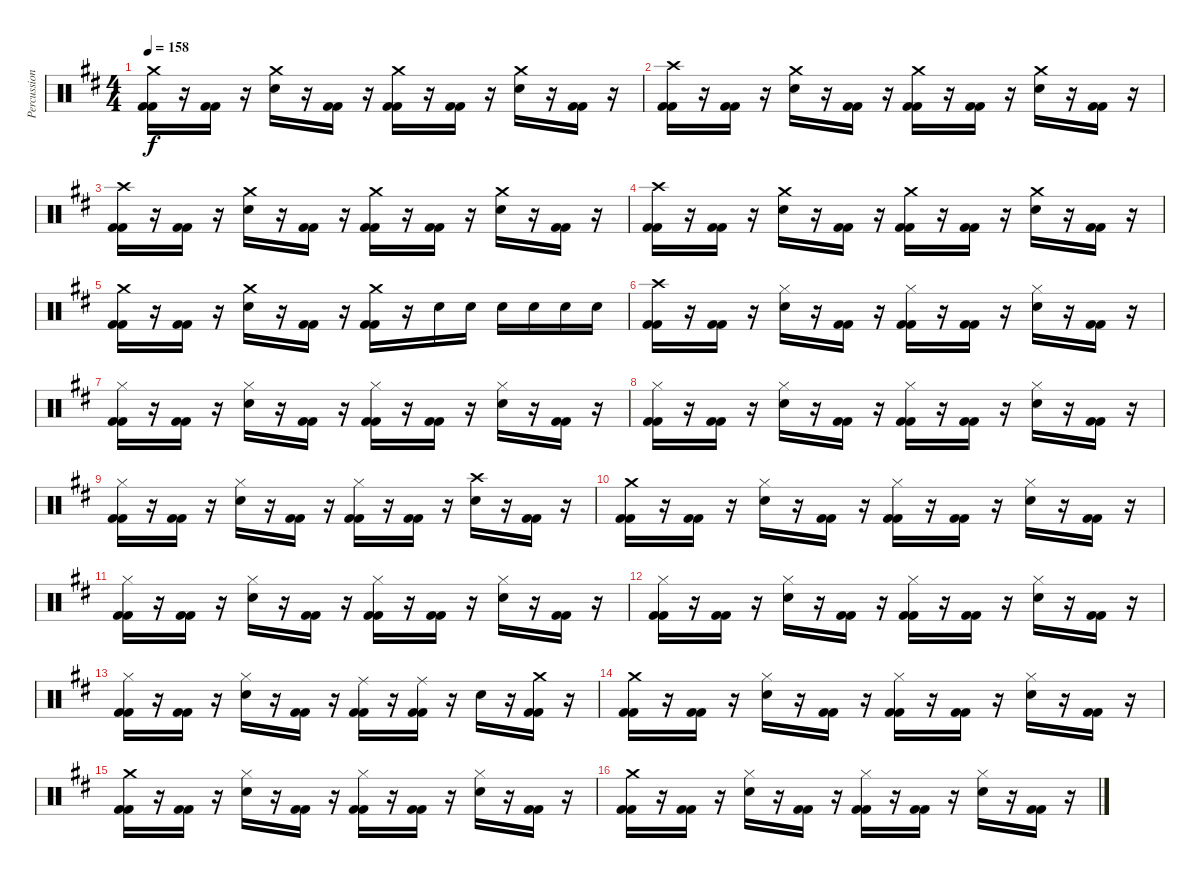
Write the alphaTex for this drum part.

\track ("Percussion" "Percussion") {instrument percussion}
\staff {score}
\articulation defaults
\ts (4 4)
\tempo 158
\clef neutral
\ks d
("Crash medium (hit)" "Kick (hit) 2" "Kick (hit) 2").16{dy f} r.16 ("Kick (hit) 2" "Kick (hit) 2").16 r.16 ("Crash medium (hit)" "Electric Snare (hit)").16 r.16 ("Kick (hit) 2" "Kick (hit) 2").16 r.16 ("Crash medium (hit)" "Kick (hit) 2" "Kick (hit) 2").16 r.16 ("Kick (hit) 2" "Kick (hit) 2").16 r.16 ("Crash medium (hit)" "Electric Snare (hit)").16 r.16 ("Kick (hit) 2" "Kick (hit) 2").16 r.16 |
("Crash high (hit)" "Kick (hit) 2" "Kick (hit) 2").16 r.16 ("Kick (hit) 2" "Kick (hit) 2").16 r.16 ("Crash medium (hit)" "Electric Snare (hit)").16 r.16 ("Kick (hit) 2" "Kick (hit) 2").16 r.16 ("Crash medium (hit)" "Kick (hit) 2" "Kick (hit) 2").16 r.16 ("Kick (hit) 2" "Kick (hit) 2").16 r.16 ("Crash medium (hit)" "Electric Snare (hit)").16 r.16 ("Kick (hit) 2" "Kick (hit) 2").16 r.16 |
("Crash high (hit)" "Kick (hit) 2" "Kick (hit) 2").16 r.16 ("Kick (hit) 2" "Kick (hit) 2").16 r.16 ("Crash medium (hit)" "Electric Snare (hit)").16 r.16 ("Kick (hit) 2" "Kick (hit) 2").16 r.16 ("Crash medium (hit)" "Kick (hit) 2" "Kick (hit) 2").16 r.16 ("Kick (hit) 2" "Kick (hit) 2").16 r.16 ("Crash medium (hit)" "Electric Snare (hit)").16 r.16 ("Kick (hit) 2" "Kick (hit) 2").16 r.16 |
("Crash high (hit)" "Kick (hit) 2" "Kick (hit) 2").16 r.16 ("Kick (hit) 2" "Kick (hit) 2").16 r.16 ("Crash medium (hit)" "Electric Snare (hit)").16 r.16 ("Kick (hit) 2" "Kick (hit) 2").16 r.16 ("Crash medium (hit)" "Kick (hit) 2" "Kick (hit) 2").16 r.16 ("Kick (hit) 2" "Kick (hit) 2").16 r.16 ("Crash medium (hit)" "Electric Snare (hit)").16 r.16 ("Kick (hit) 2" "Kick (hit) 2").16 r.16 |
("Crash medium (hit)" "Kick (hit) 2" "Kick (hit) 2").16 r.16 ("Kick (hit) 2" "Kick (hit) 2").16 r.16 ("Crash medium (hit)" "Electric Snare (hit)").16 r.16 ("Kick (hit) 2" "Kick (hit) 2").16 r.16 ("Crash medium (hit)" "Kick (hit) 2" "Kick (hit) 2").16 r.16 "Electric Snare (hit)".16 "Electric Snare (hit)".16 "Electric Snare (hit)".16 "Electric Snare (hit)".16 "Electric Snare (hit)".16 "Electric Snare (hit)".16 |
("Crash high (hit)" "Kick (hit) 2" "Kick (hit) 2").16 r.16 ("Kick (hit) 2" "Kick (hit) 2").16 r.16 ("Hi-Hat (closed)" "Electric Snare (hit)").16 r.16 ("Kick (hit) 2" "Kick (hit) 2").16 r.16 ("Hi-Hat (closed)" "Kick (hit) 2" "Kick (hit) 2").16 r.16 ("Kick (hit) 2" "Kick (hit) 2").16 r.16 ("Hi-Hat (closed)" "Electric Snare (hit)").16 r.16 ("Kick (hit) 2" "Kick (hit) 2").16 r.16 |
("Hi-Hat (closed)" "Kick (hit) 2" "Kick (hit) 2").16 r.16 ("Kick (hit) 2" "Kick (hit) 2").16 r.16 ("Hi-Hat (closed)" "Electric Snare (hit)").16 r.16 ("Kick (hit) 2" "Kick (hit) 2").16 r.16 ("Hi-Hat (closed)" "Kick (hit) 2" "Kick (hit) 2").16 r.16 ("Kick (hit) 2" "Kick (hit) 2").16 r.16 ("Hi-Hat (closed)" "Electric Snare (hit)").16 r.16 ("Kick (hit) 2" "Kick (hit) 2").16 r.16 |
("Hi-Hat (closed)" "Kick (hit) 2" "Kick (hit) 2").16 r.16 ("Kick (hit) 2" "Kick (hit) 2").16 r.16 ("Hi-Hat (closed)" "Electric Snare (hit)").16 r.16 ("Kick (hit) 2" "Kick (hit) 2").16 r.16 ("Hi-Hat (closed)" "Kick (hit) 2" "Kick (hit) 2").16 r.16 ("Kick (hit) 2" "Kick (hit) 2").16 r.16 ("Hi-Hat (closed)" "Electric Snare (hit)").16 r.16 ("Kick (hit) 2" "Kick (hit) 2").16 r.16 |
("Hi-Hat (closed)" "Kick (hit) 2" "Kick (hit) 2").16 r.16 ("Kick (hit) 2" "Kick (hit) 2").16 r.16 ("Hi-Hat (closed)" "Electric Snare (hit)").16 r.16 ("Kick (hit) 2" "Kick (hit) 2").16 r.16 ("Hi-Hat (closed)" "Kick (hit) 2" "Kick (hit) 2").16 r.16 ("Kick (hit) 2" "Kick (hit) 2").16 r.16 ("Crash high (hit)" "Electric Snare (hit)").16 r.16 ("Kick (hit) 2" "Kick (hit) 2").16 r.16 |
("Crash medium (hit)" "Kick (hit) 2" "Kick (hit) 2").16 r.16 ("Kick (hit) 2" "Kick (hit) 2").16 r.16 ("Hi-Hat (closed)" "Electric Snare (hit)").16 r.16 ("Kick (hit) 2" "Kick (hit) 2").16 r.16 ("Hi-Hat (closed)" "Kick (hit) 2" "Kick (hit) 2").16 r.16 ("Kick (hit) 2" "Kick (hit) 2").16 r.16 ("Hi-Hat (closed)" "Electric Snare (hit)").16 r.16 ("Kick (hit) 2" "Kick (hit) 2").16 r.16 |
("Hi-Hat (closed)" "Kick (hit) 2" "Kick (hit) 2").16 r.16 ("Kick (hit) 2" "Kick (hit) 2").16 r.16 ("Hi-Hat (closed)" "Electric Snare (hit)").16 r.16 ("Kick (hit) 2" "Kick (hit) 2").16 r.16 ("Hi-Hat (closed)" "Kick (hit) 2" "Kick (hit) 2").16 r.16 ("Kick (hit) 2" "Kick (hit) 2").16 r.16 ("Hi-Hat (closed)" "Electric Snare (hit)").16 r.16 ("Kick (hit) 2" "Kick (hit) 2").16 r.16 |
("Hi-Hat (closed)" "Kick (hit) 2" "Kick (hit) 2").16 r.16 ("Kick (hit) 2" "Kick (hit) 2").16 r.16 ("Hi-Hat (closed)" "Electric Snare (hit)").16 r.16 ("Kick (hit) 2" "Kick (hit) 2").16 r.16 ("Hi-Hat (closed)" "Kick (hit) 2" "Kick (hit) 2").16 r.16 ("Kick (hit) 2" "Kick (hit) 2").16 r.16 ("Hi-Hat (closed)" "Electric Snare (hit)").16 r.16 ("Kick (hit) 2" "Kick (hit) 2").16 r.16 |
("Hi-Hat (closed)" "Kick (hit) 2" "Kick (hit) 2").16 r.16 ("Kick (hit) 2" "Kick (hit) 2").16 r.16 ("Hi-Hat (closed)" "Electric Snare (hit)").16 r.16 ("Kick (hit) 2" "Kick (hit) 2").16 r.16 ("Ride (middle)" "Kick (hit) 2" "Kick (hit) 2").16 r.16 ("Ride (middle)" "Kick (hit) 2" "Kick (hit) 2").16 r.16 "Electric Snare (hit)".16 r.16 ("Crash medium (hit)" "Kick (hit) 2" "Kick (hit) 2").16 r.16 |
("Crash medium (hit)" "Kick (hit) 2" "Kick (hit) 2").16 r.16 ("Kick (hit) 2" "Kick (hit) 2").16 r.16 ("Hi-Hat (closed)" "Electric Snare (hit)").16 r.16 ("Kick (hit) 2" "Kick (hit) 2").16 r.16 ("Hi-Hat (closed)" "Kick (hit) 2" "Kick (hit) 2").16 r.16 ("Kick (hit) 2" "Kick (hit) 2").16 r.16 ("Hi-Hat (closed)" "Electric Snare (hit)").16 r.16 ("Kick (hit) 2" "Kick (hit) 2").16 r.16 |
("Crash medium (hit)" "Kick (hit) 2" "Kick (hit) 2").16 r.16 ("Kick (hit) 2" "Kick (hit) 2").16 r.16 ("Hi-Hat (closed)" "Electric Snare (hit)").16 r.16 ("Kick (hit) 2" "Kick (hit) 2").16 r.16 ("Hi-Hat (closed)" "Kick (hit) 2" "Kick (hit) 2").16 r.16 ("Kick (hit) 2" "Kick (hit) 2").16 r.16 ("Hi-Hat (closed)" "Electric Snare (hit)").16 r.16 ("Kick (hit) 2" "Kick (hit) 2").16 r.16 |
("Crash medium (hit)" "Kick (hit) 2" "Kick (hit) 2").16 r.16 ("Kick (hit) 2" "Kick (hit) 2").16 r.16 ("Hi-Hat (closed)" "Electric Snare (hit)").16 r.16 ("Kick (hit) 2" "Kick (hit) 2").16 r.16 ("Hi-Hat (closed)" "Kick (hit) 2" "Kick (hit) 2").16 r.16 ("Kick (hit) 2" "Kick (hit) 2").16 r.16 ("Hi-Hat (closed)" "Electric Snare (hit)").16 r.16 ("Kick (hit) 2" "Kick (hit) 2").16 r.16
